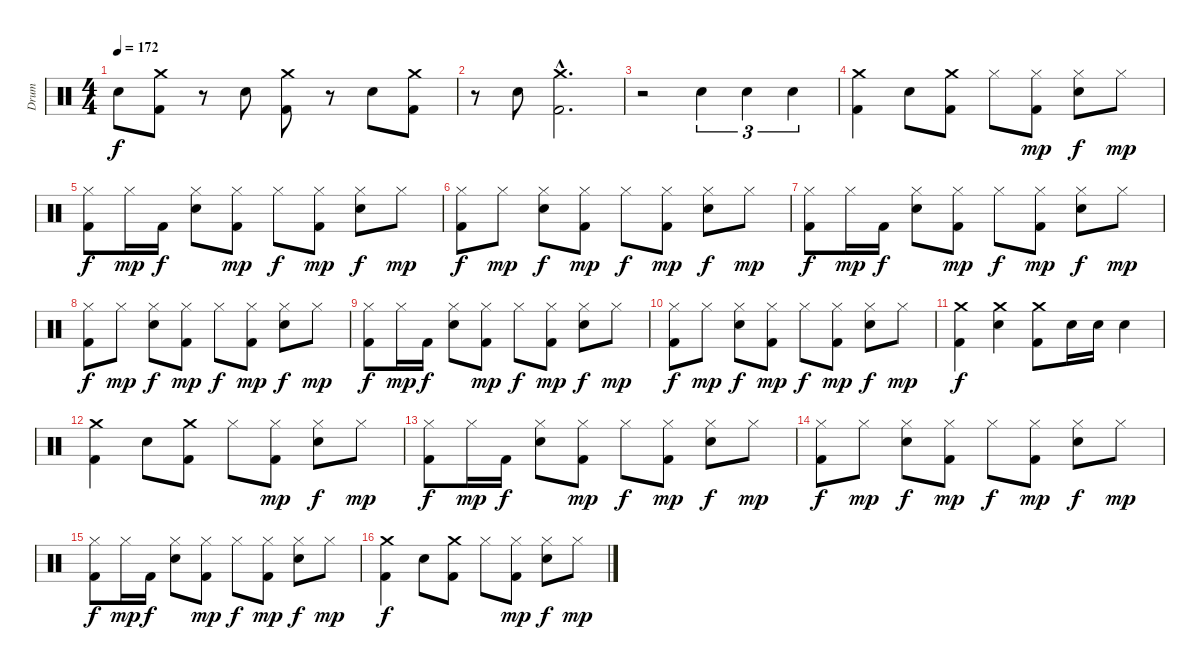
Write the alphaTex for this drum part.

\track ("Drum" "Drum") {instrument percussion}
\staff {score}
\articulation defaults
\ts (4 4)
\tempo 172
\clef neutral
\ks c "Electric Snare (hit)".8{dy f}
("Crash medium (hit)" "Kick (hit) 2").8 r.8 "Electric Snare (hit)".8 ("Crash medium (hit)" "Kick (hit) 2").8 r.8 "Electric Snare (hit)".8 ("Crash medium (hit)" "Kick (hit) 2").8 |
r.8 "Electric Snare (hit)".8 ("Crash medium (hit)"{hac} "Kick (hit) 2"{hac}).2{d} |
r.2 "Electric Snare (hit)".4{tu (3 2)} "Electric Snare (hit)".4{tu (3 2)} "Electric Snare (hit)".4{tu (3 2)} |
("Crash medium (hit)" "Kick (hit) 2").4 "Electric Snare (hit)".8 ("Crash medium (hit)" "Kick (hit) 2").8 "Hi-Hat (closed)".8 ("Hi-Hat (closed)" "Kick (hit) 2").8{dy mp} ("Hi-Hat (closed)" "Electric Snare (hit)").8{dy f} "Hi-Hat (closed)".8{dy mp} |
("Hi-Hat (closed)" "Kick (hit) 2").8{dy f} "Hi-Hat (closed)".16{dy mp} "Kick (hit) 2".16{dy f} ("Hi-Hat (closed)" "Electric Snare (hit)").8 ("Hi-Hat (closed)" "Kick (hit) 2").8{dy mp} "Hi-Hat (closed)".8{dy f} ("Hi-Hat (closed)" "Kick (hit) 2").8{dy mp} ("Hi-Hat (closed)" "Electric Snare (hit)").8{dy f} "Hi-Hat (closed)".8{dy mp} |
("Hi-Hat (closed)" "Kick (hit) 2").8{dy f} "Hi-Hat (closed)".8{dy mp} ("Hi-Hat (closed)" "Electric Snare (hit)").8{dy f} ("Hi-Hat (closed)" "Kick (hit) 2").8{dy mp} "Hi-Hat (closed)".8{dy f} ("Hi-Hat (closed)" "Kick (hit) 2").8{dy mp} ("Hi-Hat (closed)" "Electric Snare (hit)").8{dy f} "Hi-Hat (closed)".8{dy mp} |
("Hi-Hat (closed)" "Kick (hit) 2").8{dy f} "Hi-Hat (closed)".16{dy mp} "Kick (hit) 2".16{dy f} ("Hi-Hat (closed)" "Electric Snare (hit)").8 ("Hi-Hat (closed)" "Kick (hit) 2").8{dy mp} "Hi-Hat (closed)".8{dy f} ("Hi-Hat (closed)" "Kick (hit) 2").8{dy mp} ("Hi-Hat (closed)" "Electric Snare (hit)").8{dy f} "Hi-Hat (closed)".8{dy mp} |
("Hi-Hat (closed)" "Kick (hit) 2").8{dy f} "Hi-Hat (closed)".8{dy mp} ("Hi-Hat (closed)" "Electric Snare (hit)").8{dy f} ("Hi-Hat (closed)" "Kick (hit) 2").8{dy mp} "Hi-Hat (closed)".8{dy f} ("Hi-Hat (closed)" "Kick (hit) 2").8{dy mp} ("Hi-Hat (closed)" "Electric Snare (hit)").8{dy f} "Hi-Hat (closed)".8{dy mp} |
("Hi-Hat (closed)" "Kick (hit) 2").8{dy f} "Hi-Hat (closed)".16{dy mp} "Kick (hit) 2".16{dy f} ("Hi-Hat (closed)" "Electric Snare (hit)").8 ("Hi-Hat (closed)" "Kick (hit) 2").8{dy mp} "Hi-Hat (closed)".8{dy f} ("Hi-Hat (closed)" "Kick (hit) 2").8{dy mp} ("Hi-Hat (closed)" "Electric Snare (hit)").8{dy f} "Hi-Hat (closed)".8{dy mp} |
("Hi-Hat (closed)" "Kick (hit) 2").8{dy f} "Hi-Hat (closed)".8{dy mp} ("Hi-Hat (closed)" "Electric Snare (hit)").8{dy f} ("Hi-Hat (closed)" "Kick (hit) 2").8{dy mp} "Hi-Hat (closed)".8{dy f} ("Hi-Hat (closed)" "Kick (hit) 2").8{dy mp} ("Hi-Hat (closed)" "Electric Snare (hit)").8{dy f} "Hi-Hat (closed)".8{dy mp} |
("Crash medium (hit)" "Kick (hit) 2").4{dy f} ("Crash medium (hit)" "Electric Snare (hit)").4 ("Crash medium (hit)" "Kick (hit) 2").8 "Electric Snare (hit)".16 "Electric Snare (hit)".16 "Electric Snare (hit)".4 |
("Crash medium (hit)" "Kick (hit) 2").4 "Electric Snare (hit)".8 ("Crash medium (hit)" "Kick (hit) 2").8 "Hi-Hat (closed)".8 ("Hi-Hat (closed)" "Kick (hit) 2").8{dy mp} ("Hi-Hat (closed)" "Electric Snare (hit)").8{dy f} "Hi-Hat (closed)".8{dy mp} |
("Hi-Hat (closed)" "Kick (hit) 2").8{dy f} "Hi-Hat (closed)".16{dy mp} "Kick (hit) 2".16{dy f} ("Hi-Hat (closed)" "Electric Snare (hit)").8 ("Hi-Hat (closed)" "Kick (hit) 2").8{dy mp} "Hi-Hat (closed)".8{dy f} ("Hi-Hat (closed)" "Kick (hit) 2").8{dy mp} ("Hi-Hat (closed)" "Electric Snare (hit)").8{dy f} "Hi-Hat (closed)".8{dy mp} |
("Hi-Hat (closed)" "Kick (hit) 2").8{dy f} "Hi-Hat (closed)".8{dy mp} ("Hi-Hat (closed)" "Electric Snare (hit)").8{dy f} ("Hi-Hat (closed)" "Kick (hit) 2").8{dy mp} "Hi-Hat (closed)".8{dy f} ("Hi-Hat (closed)" "Kick (hit) 2").8{dy mp} ("Hi-Hat (closed)" "Electric Snare (hit)").8{dy f} "Hi-Hat (closed)".8{dy mp} |
("Hi-Hat (closed)" "Kick (hit) 2").8{dy f} "Hi-Hat (closed)".16{dy mp} "Kick (hit) 2".16{dy f} ("Hi-Hat (closed)" "Electric Snare (hit)").8 ("Hi-Hat (closed)" "Kick (hit) 2").8{dy mp} "Hi-Hat (closed)".8{dy f} ("Hi-Hat (closed)" "Kick (hit) 2").8{dy mp} ("Hi-Hat (closed)" "Electric Snare (hit)").8{dy f} "Hi-Hat (closed)".8{dy mp} |
("Crash medium (hit)" "Kick (hit) 2").4{dy f} "Electric Snare (hit)".8 ("Crash medium (hit)" "Kick (hit) 2").8 "Hi-Hat (closed)".8 ("Hi-Hat (closed)" "Kick (hit) 2").8{dy mp} ("Hi-Hat (closed)" "Electric Snare (hit)").8{dy f} "Hi-Hat (closed)".8{dy mp}
